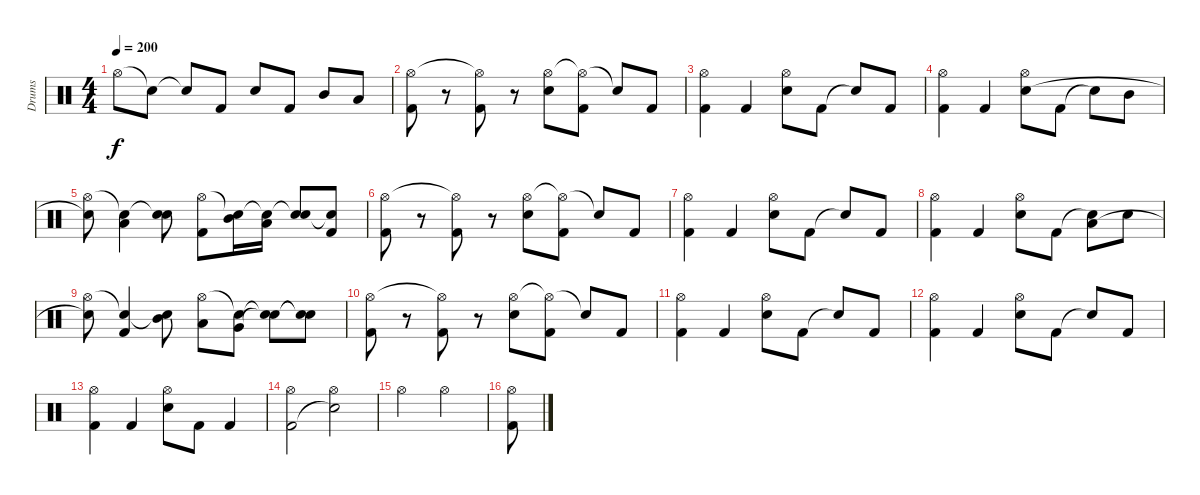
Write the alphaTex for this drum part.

\track ("Drums" "Drums") {instrument percussion}
\staff {score}
\articulation defaults
\ts (4 4)
\tempo 200
\clef neutral
\ks c "Hi-Hat (open)".8{dy f} "Snare (hit)"{t}.8 "Snare (hit)"{t}.8 "Kick (hit) 2".8 "Electric Snare (hit)".8 "Kick (hit) 2".8 "Mid Tom (hit)".8 "Low Tom (hit)".8
|
("Hi-Hat (open)" "Kick (hit) 2").8 r.8 ("Hi-Hat (open)"{t} "Kick (hit) 2").8 r.8 ("Hi-Hat (open)" "Electric Snare (hit)").8 ("Hi-Hat (open)"{t} "Kick (hit) 2").8 "Snare (hit)"{t}.8 "Kick (hit) 2".8 |
("Hi-Hat (open)" "Kick (hit) 2").4 "Kick (hit) 2".4 ("Hi-Hat (open)" "Electric Snare (hit)").8 "Kick (hit) 2".8 "Snare (hit)"{t}.8 "Kick (hit) 2".8 |
("Hi-Hat (open)" "Kick (hit) 2").4 "Kick (hit) 2".4 ("Hi-Hat (open)" "Electric Snare (hit)").8 "Kick (hit) 2".8 "Snare (hit)"{t}.8 "Mid Tom (hit)".8 |
("Hi-Hat (open)" "Snare (hit)"{t}).8 ("Snare (hit)"{t} "Low Tom (hit)").4 ("Snare (hit)"{t} "Electric Snare (hit)").8 ("Hi-Hat (open)" "Kick (hit) 2").8 ("Snare (hit)"{t} "Mid Tom (hit)").16 ("Snare (hit)"{t} "Low Tom (hit)").16 ("Snare (hit)"{t} "Electric Snare (hit)").8 ("Snare (hit)"{t} "Kick (hit) 2").8 |
("Hi-Hat (open)" "Kick (hit) 2").8 r.8 ("Hi-Hat (open)"{t} "Kick (hit) 2").8 r.8 ("Hi-Hat (open)" "Electric Snare (hit)").8 ("Hi-Hat (open)"{t} "Kick (hit) 2").8 "Snare (hit)"{t}.8 "Kick (hit) 2".8 |
("Hi-Hat (open)" "Kick (hit) 2").4 "Kick (hit) 2".4 ("Hi-Hat (open)" "Electric Snare (hit)").8 "Kick (hit) 2".8 "Snare (hit)"{t}.8 "Kick (hit) 2".8 |
("Hi-Hat (open)" "Kick (hit) 2").4 "Kick (hit) 2".4 ("Hi-Hat (open)" "Electric Snare (hit)").8 "Kick (hit) 2".8 ("Snare (hit)"{t} "Low Tom (hit)").8 "Electric Snare (hit)".8 |
("Hi-Hat (open)" "Snare (hit)"{t}).8 ("Snare (hit)"{t} "Kick (hit) 2").4 ("Snare (hit)"{t} "Mid Tom (hit)").8 ("Hi-Hat (open)" "Low Tom (hit)").8 ("Snare (hit)"{t} "Very Low Tom (hit)").8 ("Snare (hit)"{t} "Snare (hit)"{t}).8 ("Snare (hit)"{t} "Snare (hit)"{t}).8 |
("Hi-Hat (open)" "Kick (hit) 2").8 r.8 ("Hi-Hat (open)"{t} "Kick (hit) 2").8 r.8 ("Hi-Hat (open)" "Electric Snare (hit)").8 ("Hi-Hat (open)"{t} "Kick (hit) 2").8 "Snare (hit)"{t}.8 "Kick (hit) 2".8 |
("Hi-Hat (open)" "Kick (hit) 2").4 "Kick (hit) 2".4 ("Hi-Hat (open)" "Electric Snare (hit)").8 "Kick (hit) 2".8 "Snare (hit)"{t}.8 "Kick (hit) 2".8 |
("Hi-Hat (open)" "Kick (hit) 2").4 "Kick (hit) 2".4 ("Hi-Hat (open)" "Electric Snare (hit)").8 "Kick (hit) 2".8 "Snare (hit)"{t}.8 "Kick (hit) 2".8 |
("Hi-Hat (open)" "Kick (hit) 2").4 "Kick (hit) 2".4 ("Hi-Hat (open)" "Electric Snare (hit)").8 "Kick (hit) 2".8 "Kick (hit) 2".4 |
("Hi-Hat (open)" "Kick (hit) 2").2 ("Hi-Hat (open)" "Snare (hit)"{t}).2 |
"Hi-Hat (open)".2 "Hi-Hat (open)".2 |
("Hi-Hat (open)" "Kick (hit) 2").8
